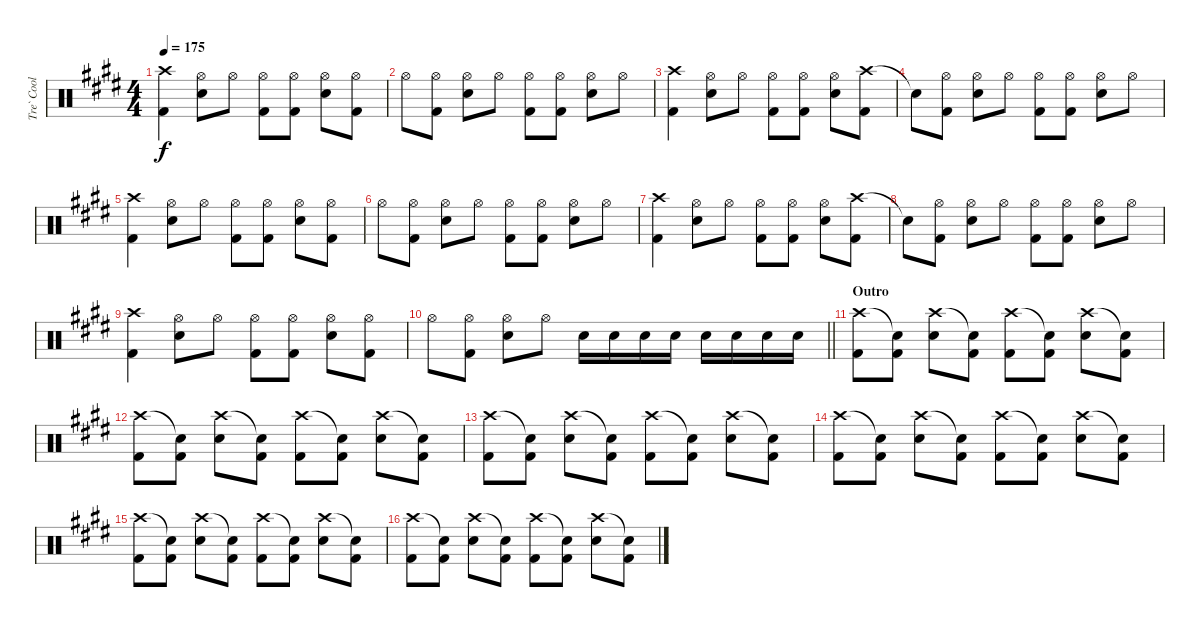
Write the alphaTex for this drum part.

\track ("Tre` Cool" "Tre` Cool") {instrument percussion}
\staff {score}
\articulation defaults
\ts (4 4)
\tempo 175
\clef neutral
\ks e
("Crash high (hit)" "Kick (hit) 2").4{dy f} ("Hi-Hat (open)" "Snare (hit) 2").8 "Hi-Hat (open)".8 ("Hi-Hat (open)" "Kick (hit) 2").8 ("Hi-Hat (open)" "Kick (hit) 2").8 ("Hi-Hat (open)" "Snare (hit) 2").8 ("Hi-Hat (open)" "Kick (hit) 2").8 |
"Hi-Hat (open)".8 ("Hi-Hat (open)" "Kick (hit) 2").8 ("Hi-Hat (open)" "Snare (hit) 2").8 "Hi-Hat (open)".8 ("Hi-Hat (open)" "Kick (hit) 2").8 ("Hi-Hat (open)" "Kick (hit) 2").8 ("Hi-Hat (open)" "Snare (hit) 2").8 "Hi-Hat (open)".8 |
("Crash high (hit)" "Kick (hit) 2").4 ("Hi-Hat (open)" "Snare (hit) 2").8 "Hi-Hat (open)".8 ("Hi-Hat (open)" "Kick (hit) 2").8 ("Hi-Hat (open)" "Kick (hit) 2").8 ("Hi-Hat (open)" "Snare (hit) 2").8 ("Crash high (hit)" "Kick (hit) 2").8 |
"Snare (hit)"{t}.8 ("Hi-Hat (open)" "Kick (hit) 2").8 ("Hi-Hat (open)" "Snare (hit) 2").8 "Hi-Hat (open)".8 ("Hi-Hat (open)" "Kick (hit) 2").8 ("Hi-Hat (open)" "Kick (hit) 2").8 ("Hi-Hat (open)" "Snare (hit) 2").8 "Hi-Hat (open)".8 |
("Crash high (hit)" "Kick (hit) 2").4 ("Hi-Hat (open)" "Snare (hit) 2").8 "Hi-Hat (open)".8 ("Hi-Hat (open)" "Kick (hit) 2").8 ("Hi-Hat (open)" "Kick (hit) 2").8 ("Hi-Hat (open)" "Snare (hit) 2").8 ("Hi-Hat (open)" "Kick (hit) 2").8 |
"Hi-Hat (open)".8 ("Hi-Hat (open)" "Kick (hit) 2").8 ("Hi-Hat (open)" "Snare (hit) 2").8 "Hi-Hat (open)".8 ("Hi-Hat (open)" "Kick (hit) 2").8 ("Hi-Hat (open)" "Kick (hit) 2").8 ("Hi-Hat (open)" "Snare (hit) 2").8 "Hi-Hat (open)".8 |
("Crash high (hit)" "Kick (hit) 2").4 ("Hi-Hat (open)" "Snare (hit) 2").8 "Hi-Hat (open)".8 ("Hi-Hat (open)" "Kick (hit) 2").8 ("Hi-Hat (open)" "Kick (hit) 2").8 ("Hi-Hat (open)" "Snare (hit) 2").8 ("Crash high (hit)" "Kick (hit) 2").8 |
"Snare (hit)"{t}.8 ("Hi-Hat (open)" "Kick (hit) 2").8 ("Hi-Hat (open)" "Snare (hit) 2").8 "Hi-Hat (open)".8 ("Hi-Hat (open)" "Kick (hit) 2").8 ("Hi-Hat (open)" "Kick (hit) 2").8 ("Hi-Hat (open)" "Snare (hit) 2").8 "Hi-Hat (open)".8 |
("Crash high (hit)" "Kick (hit) 2").4 ("Hi-Hat (open)" "Snare (hit) 2").8 "Hi-Hat (open)".8 ("Hi-Hat (open)" "Kick (hit) 2").8 ("Hi-Hat (open)" "Kick (hit) 2").8 ("Hi-Hat (open)" "Snare (hit) 2").8 ("Hi-Hat (open)" "Kick (hit) 2").8 |
\barLineRight lightlight "Hi-Hat (open)".8
("Hi-Hat (open)" "Kick (hit) 2").8 ("Hi-Hat (open)" "Snare (hit) 2").8 "Hi-Hat (open)".8 "Snare (hit) 2".16 "Snare (hit) 2".16 "Snare (hit) 2".16 "Snare (hit) 2".16 "Snare (hit) 2".16 "Snare (hit) 2".16 "Snare (hit) 2".16 "Snare (hit) 2".16 |
\section ("" "Outro")
("Crash high (hit)" "Kick (hit) 2").8 ("Snare (hit)"{t} "Kick (hit) 2").8 ("Crash high (hit)" "Snare (hit) 2").8 ("Snare (hit)"{t} "Kick (hit) 2").8 ("Crash high (hit)" "Kick (hit) 2").8 ("Snare (hit)"{t} "Kick (hit) 2").8 ("Crash high (hit)" "Snare (hit) 2").8 ("Snare (hit)"{t} "Kick (hit) 2").8 |
("Crash high (hit)" "Kick (hit) 2").8 ("Snare (hit)"{t} "Kick (hit) 2").8 ("Crash high (hit)" "Snare (hit) 2").8 ("Snare (hit)"{t} "Kick (hit) 2").8 ("Crash high (hit)" "Kick (hit) 2").8 ("Snare (hit)"{t} "Kick (hit) 2").8 ("Crash high (hit)" "Snare (hit) 2").8 ("Snare (hit)"{t} "Kick (hit) 2").8 |
("Crash high (hit)" "Kick (hit) 2").8 ("Snare (hit)"{t} "Kick (hit) 2").8 ("Crash high (hit)" "Snare (hit) 2").8 ("Snare (hit)"{t} "Kick (hit) 2").8 ("Crash high (hit)" "Kick (hit) 2").8 ("Snare (hit)"{t} "Kick (hit) 2").8 ("Crash high (hit)" "Snare (hit) 2").8 ("Snare (hit)"{t} "Kick (hit) 2").8 |
("Crash high (hit)" "Kick (hit) 2").8 ("Snare (hit)"{t} "Kick (hit) 2").8 ("Crash high (hit)" "Snare (hit) 2").8 ("Snare (hit)"{t} "Kick (hit) 2").8 ("Crash high (hit)" "Kick (hit) 2").8 ("Snare (hit)"{t} "Kick (hit) 2").8 ("Crash high (hit)" "Snare (hit) 2").8 ("Snare (hit)"{t} "Kick (hit) 2").8 |
("Crash high (hit)" "Kick (hit) 2").8 ("Snare (hit)"{t} "Kick (hit) 2").8 ("Crash high (hit)" "Snare (hit) 2").8 ("Snare (hit)"{t} "Kick (hit) 2").8 ("Crash high (hit)" "Kick (hit) 2").8 ("Snare (hit)"{t} "Kick (hit) 2").8 ("Crash high (hit)" "Snare (hit) 2").8 ("Snare (hit)"{t} "Kick (hit) 2").8 |
("Crash high (hit)" "Kick (hit) 2").8 ("Snare (hit)"{t} "Kick (hit) 2").8 ("Crash high (hit)" "Snare (hit) 2").8 ("Snare (hit)"{t} "Kick (hit) 2").8 ("Crash high (hit)" "Kick (hit) 2").8 ("Snare (hit)"{t} "Kick (hit) 2").8 ("Crash high (hit)" "Snare (hit) 2").8 ("Snare (hit)"{t} "Kick (hit) 2").8
